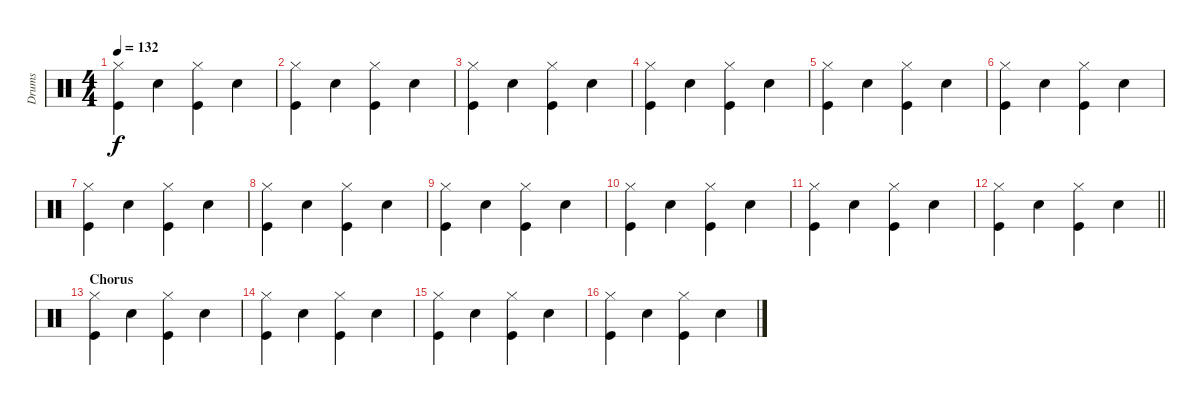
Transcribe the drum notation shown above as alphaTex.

\track ("Drums" "Drums") {instrument percussion}
\staff {score}
\articulation defaults
\ts (4 4)
\tempo 132
\clef neutral
\ks c
("Kick (hit)" "Hi-Hat (closed)").4{dy f} "Snare (hit) 2".4 ("Kick (hit)" "Hi-Hat (closed)").4 "Snare (hit) 2".4 |
("Kick (hit)" "Hi-Hat (closed)").4 "Snare (hit) 2".4 ("Kick (hit)" "Hi-Hat (closed)").4 "Snare (hit) 2".4 |
("Kick (hit)" "Hi-Hat (closed)").4 "Snare (hit) 2".4 ("Kick (hit)" "Hi-Hat (closed)").4 "Snare (hit) 2".4 |
("Kick (hit)" "Hi-Hat (closed)").4 "Snare (hit) 2".4 ("Kick (hit)" "Hi-Hat (closed)").4 "Snare (hit) 2".4 |
("Kick (hit)" "Hi-Hat (closed)").4 "Snare (hit) 2".4 ("Kick (hit)" "Hi-Hat (closed)").4 "Snare (hit) 2".4 |
("Kick (hit)" "Hi-Hat (closed)").4 "Snare (hit) 2".4 ("Kick (hit)" "Hi-Hat (closed)").4 "Snare (hit) 2".4 |
("Kick (hit)" "Hi-Hat (closed)").4 "Snare (hit) 2".4 ("Kick (hit)" "Hi-Hat (closed)").4 "Snare (hit) 2".4 |
("Kick (hit)" "Hi-Hat (closed)").4 "Snare (hit) 2".4 ("Kick (hit)" "Hi-Hat (closed)").4 "Snare (hit) 2".4 |
("Kick (hit)" "Hi-Hat (closed)").4 "Snare (hit) 2".4 ("Kick (hit)" "Hi-Hat (closed)").4 "Snare (hit) 2".4 |
("Kick (hit)" "Hi-Hat (closed)").4 "Snare (hit) 2".4 ("Kick (hit)" "Hi-Hat (closed)").4 "Snare (hit) 2".4 |
("Kick (hit)" "Hi-Hat (closed)").4 "Snare (hit) 2".4 ("Kick (hit)" "Hi-Hat (closed)").4 "Snare (hit) 2".4 |
\barLineRight lightlight
("Kick (hit)" "Hi-Hat (closed)").4 "Snare (hit) 2".4 ("Kick (hit)" "Hi-Hat (closed)").4 "Snare (hit) 2".4 |
\section ("" "Chorus")
("Kick (hit)" "Hi-Hat (closed)").4 "Snare (hit) 2".4 ("Kick (hit)" "Hi-Hat (closed)").4 "Snare (hit) 2".4 |
("Kick (hit)" "Hi-Hat (closed)").4 "Snare (hit) 2".4 ("Kick (hit)" "Hi-Hat (closed)").4 "Snare (hit) 2".4 |
("Kick (hit)" "Hi-Hat (closed)").4 "Snare (hit) 2".4 ("Kick (hit)" "Hi-Hat (closed)").4 "Snare (hit) 2".4 |
("Kick (hit)" "Hi-Hat (closed)").4 "Snare (hit) 2".4 ("Kick (hit)" "Hi-Hat (closed)").4 "Snare (hit) 2".4
